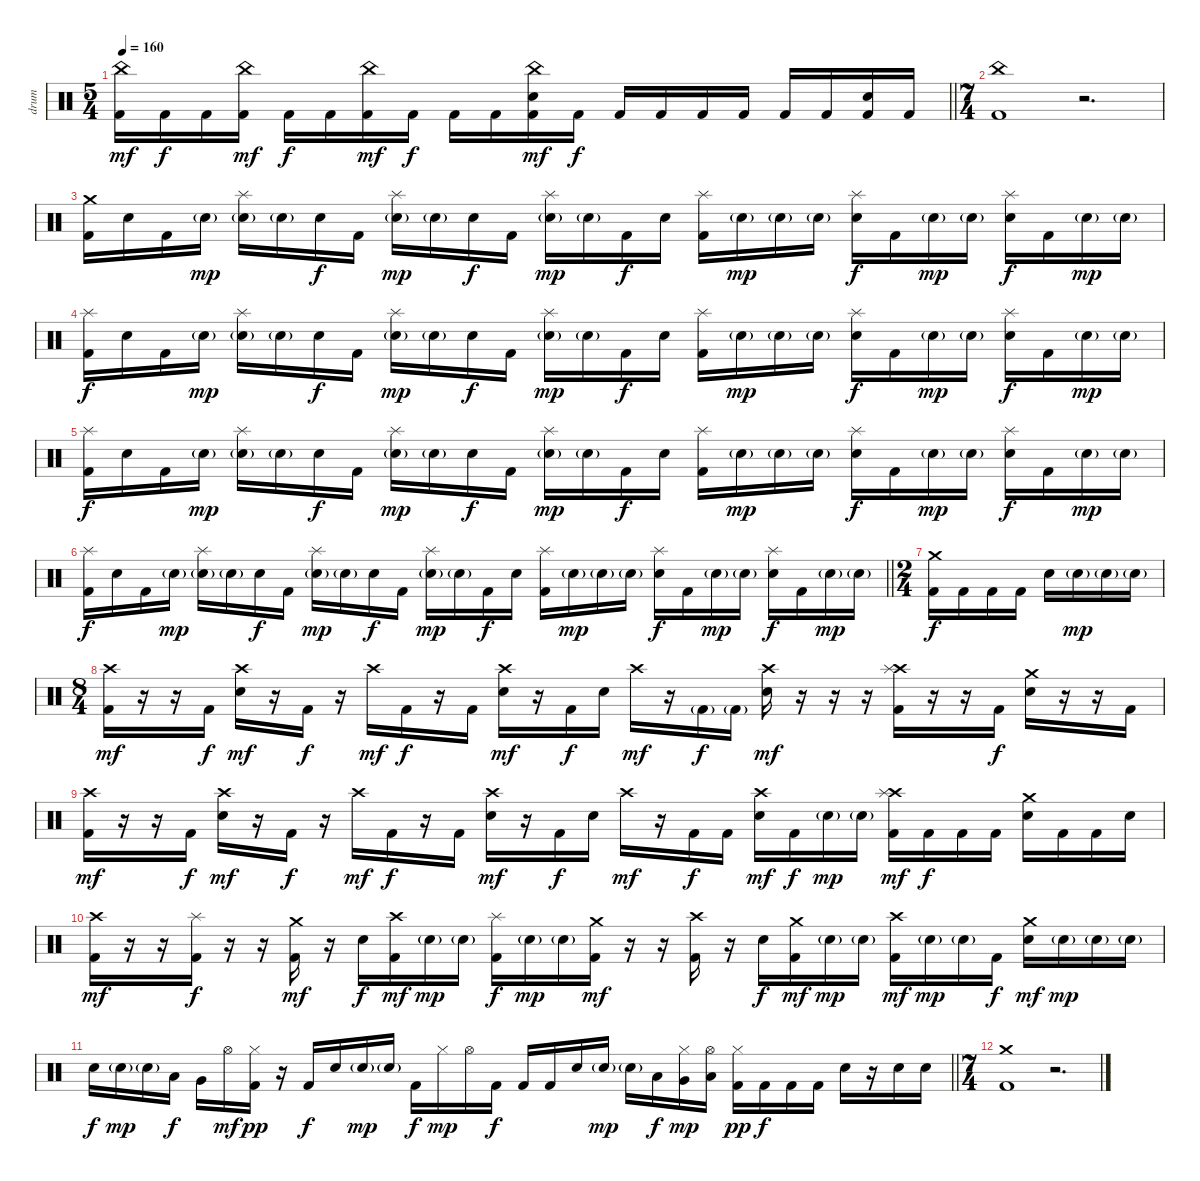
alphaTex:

\track ("drum" "drum") {instrument percussion}
\staff {score}
\articulation defaults
\ts (5 4)
\tempo 160
\clef neutral
\barLineRight lightlight
\ks c
("China (hit)" "Kick (hit) 2").16{dy mf} "Kick (hit) 2".16{dy f} "Kick (hit) 2".16 ("China (hit)" "Kick (hit) 2").16{dy mf} "Kick (hit) 2".16{dy f} "Kick (hit) 2".16 ("China (hit)" "Kick (hit) 2").16{dy mf} "Kick (hit) 2".16{dy f} "Kick (hit) 2".16 "Kick (hit) 2".16 ("China (hit)" "Electric Snare (hit)" "Kick (hit) 2").16{dy mf} "Kick (hit) 2".16{dy f} "Kick (hit) 2".16 "Kick (hit) 2".16 "Kick (hit) 2".16 "Kick (hit) 2".16 "Kick (hit) 2".16 "Kick (hit) 2".16 ("Electric Snare (hit)" "Kick (hit) 2").16 "Kick (hit) 2".16 |
\ts (7 4)
\section ("" "")
("China (hit)" "Kick (hit) 2").1 r.2{d} |
("Crash medium (hit)" "Kick (hit) 2").16 "Electric Snare (hit)".16 "Kick (hit) 2".16 "Electric Snare (hit)"{g}.16{dy mp} ("Splash (hit)" "Electric Snare (hit)"{g}).16 "Electric Snare (hit)"{g}.16 "Electric Snare (hit)".16{dy f} "Kick (hit) 2".16 ("Splash (hit)" "Electric Snare (hit)"{g}).16{dy mp} "Electric Snare (hit)"{g}.16 "Electric Snare (hit)".16{dy f} "Kick (hit) 2".16 ("Splash (hit)" "Electric Snare (hit)"{g}).16{dy mp} "Electric Snare (hit)"{g}.16 "Kick (hit) 2".16{dy f} "Electric Snare (hit)".16 ("Splash (hit)" "Kick (hit) 2").16 "Electric Snare (hit)"{g}.16{dy mp} "Electric Snare (hit)"{g}.16 "Electric Snare (hit)"{g}.16 ("Splash (hit)" "Electric Snare (hit)").16{dy f} "Kick (hit) 2".16 "Electric Snare (hit)"{g}.16{dy mp} "Electric Snare (hit)"{g}.16 ("Splash (hit)" "Electric Snare (hit)").16{dy f} "Kick (hit) 2".16 "Electric Snare (hit)"{g}.16{dy mp} "Electric Snare (hit)"{g}.16 |
("Splash (hit)" "Kick (hit) 2").16{dy f} "Electric Snare (hit)".16 "Kick (hit) 2".16 "Electric Snare (hit)"{g}.16{dy mp} ("Splash (hit)" "Electric Snare (hit)"{g}).16 "Electric Snare (hit)"{g}.16 "Electric Snare (hit)".16{dy f} "Kick (hit) 2".16 ("Splash (hit)" "Electric Snare (hit)"{g}).16{dy mp} "Electric Snare (hit)"{g}.16 "Electric Snare (hit)".16{dy f} "Kick (hit) 2".16 ("Splash (hit)" "Electric Snare (hit)"{g}).16{dy mp} "Electric Snare (hit)"{g}.16 "Kick (hit) 2".16{dy f} "Electric Snare (hit)".16 ("Splash (hit)" "Kick (hit) 2").16 "Electric Snare (hit)"{g}.16{dy mp} "Electric Snare (hit)"{g}.16 "Electric Snare (hit)"{g}.16 ("Splash (hit)" "Electric Snare (hit)").16{dy f} "Kick (hit) 2".16 "Electric Snare (hit)"{g}.16{dy mp} "Electric Snare (hit)"{g}.16 ("Splash (hit)" "Electric Snare (hit)").16{dy f} "Kick (hit) 2".16 "Electric Snare (hit)"{g}.16{dy mp} "Electric Snare (hit)"{g}.16 |
("Splash (hit)" "Kick (hit) 2").16{dy f} "Electric Snare (hit)".16 "Kick (hit) 2".16 "Electric Snare (hit)"{g}.16{dy mp} ("Splash (hit)" "Electric Snare (hit)"{g}).16 "Electric Snare (hit)"{g}.16 "Electric Snare (hit)".16{dy f} "Kick (hit) 2".16 ("Splash (hit)" "Electric Snare (hit)"{g}).16{dy mp} "Electric Snare (hit)"{g}.16 "Electric Snare (hit)".16{dy f} "Kick (hit) 2".16 ("Splash (hit)" "Electric Snare (hit)"{g}).16{dy mp} "Electric Snare (hit)"{g}.16 "Kick (hit) 2".16{dy f} "Electric Snare (hit)".16 ("Splash (hit)" "Kick (hit) 2").16 "Electric Snare (hit)"{g}.16{dy mp} "Electric Snare (hit)"{g}.16 "Electric Snare (hit)"{g}.16 ("Splash (hit)" "Electric Snare (hit)").16{dy f} "Kick (hit) 2".16 "Electric Snare (hit)"{g}.16{dy mp} "Electric Snare (hit)"{g}.16 ("Splash (hit)" "Electric Snare (hit)").16{dy f} "Kick (hit) 2".16 "Electric Snare (hit)"{g}.16{dy mp} "Electric Snare (hit)"{g}.16 |
\barLineRight lightlight
("Splash (hit)" "Kick (hit) 2").16{dy f} "Electric Snare (hit)".16 "Kick (hit) 2".16 "Electric Snare (hit)"{g}.16{dy mp} ("Splash (hit)" "Electric Snare (hit)"{g}).16 "Electric Snare (hit)"{g}.16 "Electric Snare (hit)".16{dy f} "Kick (hit) 2".16 ("Splash (hit)" "Electric Snare (hit)"{g}).16{dy mp} "Electric Snare (hit)"{g}.16 "Electric Snare (hit)".16{dy f} "Kick (hit) 2".16 ("Splash (hit)" "Electric Snare (hit)"{g}).16{dy mp} "Electric Snare (hit)"{g}.16 "Kick (hit) 2".16{dy f} "Electric Snare (hit)".16 ("Splash (hit)" "Kick (hit) 2").16 "Electric Snare (hit)"{g}.16{dy mp} "Electric Snare (hit)"{g}.16 "Electric Snare (hit)"{g}.16 ("Splash (hit)" "Electric Snare (hit)").16{dy f} "Kick (hit) 2".16 "Electric Snare (hit)"{g}.16{dy mp} "Electric Snare (hit)"{g}.16 ("Splash (hit)" "Electric Snare (hit)").16{dy f} "Kick (hit) 2".16 "Electric Snare (hit)"{g}.16{dy mp} "Electric Snare (hit)"{g}.16 |
\ts (2 4)
\section ("" "")
("Crash medium (hit)" "Kick (hit) 2").16{dy f} "Kick (hit) 2".16 "Kick (hit) 2".16 "Kick (hit) 2".16 "Electric Snare (hit)".16 "Electric Snare (hit)"{g}.16{dy mp} "Electric Snare (hit)"{g}.16 "Electric Snare (hit)"{g}.16 |
\ts (8 4)
("Crash high (hit)" "Kick (hit) 2").16{dy mf} r.16 r.16 "Kick (hit) 2".16{dy f} ("Crash high (hit)" "Electric Snare (hit)").16{dy mf} r.16 "Kick (hit) 2".16{dy f} r.16 "Crash high (hit)".16{dy mf} "Kick (hit) 2".16{dy f} r.16 "Kick (hit) 2".16 ("Crash high (hit)" "Electric Snare (hit)").16{dy mf} r.16 "Kick (hit) 2".16{dy f} "Electric Snare (hit)".16 "Crash high (hit)".16{dy mf} r.16 "Kick (hit) 2"{g}.16{dy f} "Kick (hit) 2"{g}.16 ("Crash high (hit)" "Electric Snare (hit)").16{dy mf} r.16 r.16 r.16 ("Crash high (hit)" "Splash (hit)" "Kick (hit) 2").16 r.16 r.16 "Kick (hit) 2".16{dy f} ("Crash medium (hit)" "Electric Snare (hit)").16 r.16 r.16 "Kick (hit) 2".16 |
("Crash high (hit)" "Kick (hit) 2").16{dy mf} r.16 r.16 "Kick (hit) 2".16{dy f} ("Crash high (hit)" "Electric Snare (hit)").16{dy mf} r.16 "Kick (hit) 2".16{dy f} r.16 "Crash high (hit)".16{dy mf} "Kick (hit) 2".16{dy f} r.16 "Kick (hit) 2".16 ("Crash high (hit)" "Electric Snare (hit)").16{dy mf} r.16 "Kick (hit) 2".16{dy f} "Electric Snare (hit)".16 "Crash high (hit)".16{dy mf} r.16 "Kick (hit) 2".16{dy f} "Kick (hit) 2".16 ("Crash high (hit)" "Electric Snare (hit)").16{dy mf} "Kick (hit) 2".16{dy f} "Electric Snare (hit)"{g}.16{dy mp} "Electric Snare (hit)"{g}.16 ("Crash high (hit)" "Splash (hit)" "Kick (hit) 2").16{dy mf} "Kick (hit) 2".16{dy f} "Kick (hit) 2".16 "Kick (hit) 2".16 ("Crash medium (hit)" "Electric Snare (hit)").16 "Kick (hit) 2".16 "Kick (hit) 2".16 "Electric Snare (hit)".16 |
("Crash high (hit)" "Kick (hit) 2").16{dy mf} r.16 r.16 ("Splash (hit)" "Kick (hit) 2").16{dy f} r.16 r.16 ("Crash medium (hit)" "Kick (hit) 2").16{dy mf} r.16 "Electric Snare (hit)".16{dy f} ("Crash high (hit)" "Kick (hit) 2").16{dy mf} "Electric Snare (hit)"{g}.16{dy mp} "Electric Snare (hit)"{g}.16 ("Splash (hit)" "Kick (hit) 2").16{dy f} "Electric Snare (hit)"{g}.16{dy mp} "Electric Snare (hit)"{g}.16 ("Crash medium (hit)" "Kick (hit) 2").16{dy mf} r.16 r.16 ("Crash high (hit)" "Kick (hit) 2").16 r.16 "Electric Snare (hit)".16{dy f} ("Crash medium (hit)" "Kick (hit) 2").16{dy mf} "Electric Snare (hit)"{g}.16{dy mp} "Electric Snare (hit)"{g}.16 ("Crash high (hit)" "Kick (hit) 2").16{dy mf} "Electric Snare (hit)"{g}.16{dy mp} "Electric Snare (hit)"{g}.16 "Kick (hit) 2".16{dy f} ("Crash medium (hit)" "Electric Snare (hit)").16{dy mf} "Electric Snare (hit)"{g}.16{dy mp} "Electric Snare (hit)"{g}.16 "Electric Snare (hit)"{g}.16 |
\barLineRight lightlight "Electric Snare (hit)".16{dy f} "Electric Snare (hit)"{g}.16{dy mp} "Electric Snare (hit)"{g}.16 "Low Tom (hit)".16{dy f} "Very Low Tom (hit)".16 "Hi-Hat (open)".16{dy mf}
("Hi-Hat (closed)" "Kick (hit) 2").16{dy pp} r.16 "Kick (hit) 2".16{dy f} "Electric Snare (hit)".16 "Electric Snare (hit)"{g}.16{dy mp} "Electric Snare (hit)"{g}.16 "Kick (hit) 2".16{dy f} "Hi-Hat (closed)".16{dy mp} "Hi-Hat (open)".16 "Kick (hit) 2".16{dy f} "Kick (hit) 2".16 "Kick (hit) 2".16 "Electric Snare (hit)".16 "Electric Snare (hit)"{g}.16{dy mp} "Electric Snare (hit)"{g}.16 "Low Tom (hit)".16{dy f} ("Hi-Hat (closed)" "Very Low Tom (hit)").16{dy mp} ("Hi-Hat (open)" "Low Floor Tom (hit)").16 ("Hi-Hat (closed)" "Kick (hit) 2").16{dy pp} "Kick (hit) 2".16{dy f} "Kick (hit) 2".16 "Kick (hit) 2".16 "Electric Snare (hit)".16 r.16 "Electric Snare (hit)".16 "Electric Snare (hit)".16 |
\ts (7 4)
\section ("" "")
("Crash medium (hit)" "Kick (hit) 2").1 r.2{d}
